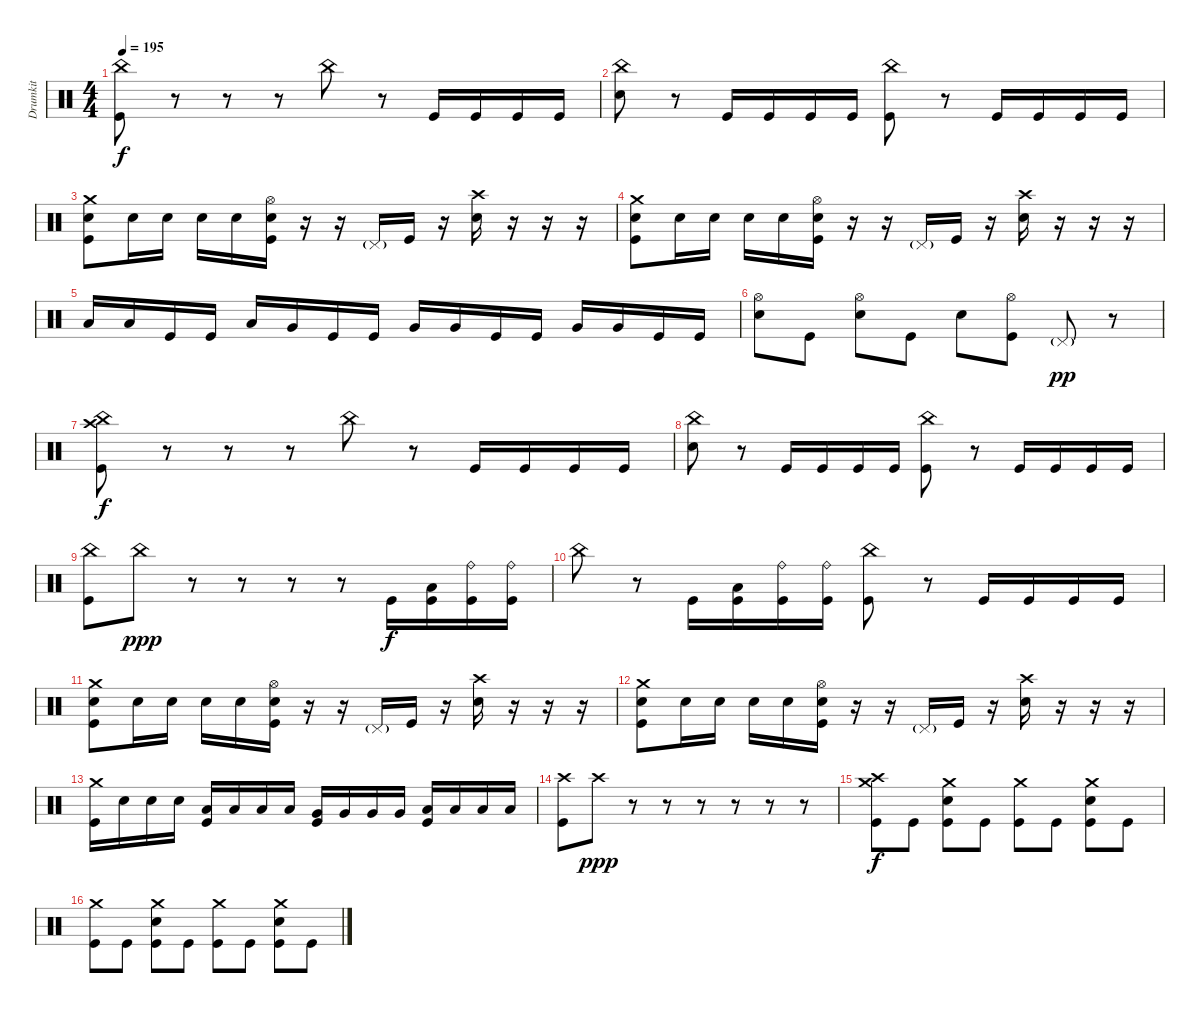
\track ("Drumkit" "Drumkit") {instrument percussion}
\staff {score}
\articulation defaults
\ts (4 4)
\tempo 195
\clef neutral
\ks c
("China (hit)" "Kick (hit)").8{dy f} r.8 r.8 r.8 "China (hit)".8 r.8 "Kick (hit)".16 "Kick (hit)".16 "Kick (hit)".16 "Kick (hit)".16 |
("China (hit)" "Snare (hit) 2").8 r.8 "Kick (hit)".16 "Kick (hit)".16 "Kick (hit)".16 "Kick (hit)".16 ("China (hit)" "Kick (hit)").8 r.8 "Kick (hit)".16 "Kick (hit)".16 "Kick (hit)".16 "Kick (hit)".16 |
("Crash medium (hit)" "Snare (hit) 2" "Kick (hit)").8 "Snare (hit) 2".16 "Snare (hit) 2".16 "Snare (hit) 2".16 "Snare (hit) 2".16 ("Hi-Hat (open)" "Snare (hit) 2" "Kick (hit)").16 r.16 r.16 "Pedal Hi-Hat (hit)"{g}.16 "Kick (hit)".16 r.16 ("Crash high (hit)" "Snare (hit) 2").16 r.16 r.16 r.16 |
("Crash medium (hit)" "Snare (hit) 2" "Kick (hit)").8 "Snare (hit) 2".16 "Snare (hit) 2".16 "Snare (hit) 2".16 "Snare (hit) 2".16 ("Hi-Hat (open)" "Snare (hit) 2" "Kick (hit)").16 r.16 r.16 "Pedal Hi-Hat (hit)"{g}.16 "Kick (hit)".16 r.16 ("Crash high (hit)" "Snare (hit) 2").16 r.16 r.16 r.16 |
"Low Tom (hit)".16 "Low Tom (hit)".16 "Kick (hit)".16 "Kick (hit)".16 "Low Tom (hit)".16 "Very Low Tom (hit)".16 "Kick (hit)".16 "Kick (hit)".16 "Very Low Tom (hit)".16 "Very Low Tom (hit)".16 "Kick (hit)".16 "Kick (hit)".16 "Very Low Tom (hit)".16 "Very Low Tom (hit)".16 "Kick (hit)".16 "Kick (hit)".16 |
("Hi-Hat (open)" "Snare (hit) 2").8 "Kick (hit)".8 ("Hi-Hat (open)" "Snare (hit) 2").8 "Kick (hit)".8 "Snare (hit) 2".8 ("Hi-Hat (open)" "Kick (hit)").8 "Pedal Hi-Hat (hit)"{g}.8{dy pp} r.8 |
("China (hit)" "Crash high (hit)" "Kick (hit)").8{dy f} r.8 r.8 r.8 "China (hit)".8 r.8 "Kick (hit)".16 "Kick (hit)".16 "Kick (hit)".16 "Kick (hit)".16 |
("China (hit)" "Snare (hit) 2").8 r.8 "Kick (hit)".16 "Kick (hit)".16 "Kick (hit)".16 "Kick (hit)".16 ("China (hit)" "Kick (hit)").8 r.8 "Kick (hit)".16 "Kick (hit)".16 "Kick (hit)".16 "Kick (hit)".16 |
("China (hit)" "Kick (hit)").8 "China (hit)".8{dy ppp} r.8 r.8 r.8 r.8 "Kick (hit)".16{dy f} ("Low Tom (hit)" "Kick (hit)").16 ("Ride (bell)" "Kick (hit)").16 ("Ride (bell)" "Kick (hit)").16 |
"China (hit)".8 r.8 "Kick (hit)".16 ("Low Tom (hit)" "Kick (hit)").16 ("Ride (bell)" "Kick (hit)").16 ("Ride (bell)" "Kick (hit)").16 ("China (hit)" "Kick (hit)").8 r.8 "Kick (hit)".16 "Kick (hit)".16 "Kick (hit)".16 "Kick (hit)".16 |
("Crash medium (hit)" "Snare (hit) 2" "Kick (hit)").8 "Snare (hit) 2".16 "Snare (hit) 2".16 "Snare (hit) 2".16 "Snare (hit) 2".16 ("Hi-Hat (open)" "Snare (hit) 2" "Kick (hit)").16 r.16 r.16 "Pedal Hi-Hat (hit)"{g}.16 "Kick (hit)".16 r.16 ("Crash high (hit)" "Snare (hit) 2").16 r.16 r.16 r.16 |
("Crash medium (hit)" "Snare (hit) 2" "Kick (hit)").8 "Snare (hit) 2".16 "Snare (hit) 2".16 "Snare (hit) 2".16 "Snare (hit) 2".16 ("Hi-Hat (open)" "Snare (hit) 2" "Kick (hit)").16 r.16 r.16 "Pedal Hi-Hat (hit)"{g}.16 "Kick (hit)".16 r.16 ("Crash high (hit)" "Snare (hit) 2").16 r.16 r.16 r.16 |
("Crash medium (hit)" "Kick (hit)").16 "Snare (hit) 2".16 "Snare (hit) 2".16 "Snare (hit) 2".16 ("Low Tom (hit)" "Kick (hit)").16 "Low Tom (hit)".16 "Low Tom (hit)".16 "Low Tom (hit)".16 ("Very Low Tom (hit)" "Kick (hit)").16 "Very Low Tom (hit)".16 "Very Low Tom (hit)".16 "Very Low Tom (hit)".16 ("Low Floor Tom (hit)" "Kick (hit)").16 "Low Floor Tom (hit)".16 "Low Floor Tom (hit)".16 "Low Floor Tom (hit)".16 |
("Crash high (hit)" "Kick (hit)").8 "Crash high (hit)".8{dy ppp} r.8 r.8 r.8 r.8 r.8 r.8 |
("Crash medium (hit)" "Crash high (hit)" "Kick (hit)").8{dy f} "Kick (hit)".8 ("Crash medium (hit)" "Snare (hit) 2" "Kick (hit)").8 "Kick (hit)".8 ("Crash medium (hit)" "Kick (hit)").8 "Kick (hit)".8 ("Crash medium (hit)" "Snare (hit) 2" "Kick (hit)").8 "Kick (hit)".8 |
("Crash medium (hit)" "Kick (hit)").8 "Kick (hit)".8 ("Crash medium (hit)" "Snare (hit) 2" "Kick (hit)").8 "Kick (hit)".8 ("Crash medium (hit)" "Kick (hit)").8 "Kick (hit)".8 ("Crash medium (hit)" "Snare (hit) 2" "Kick (hit)").8 "Kick (hit)".8
